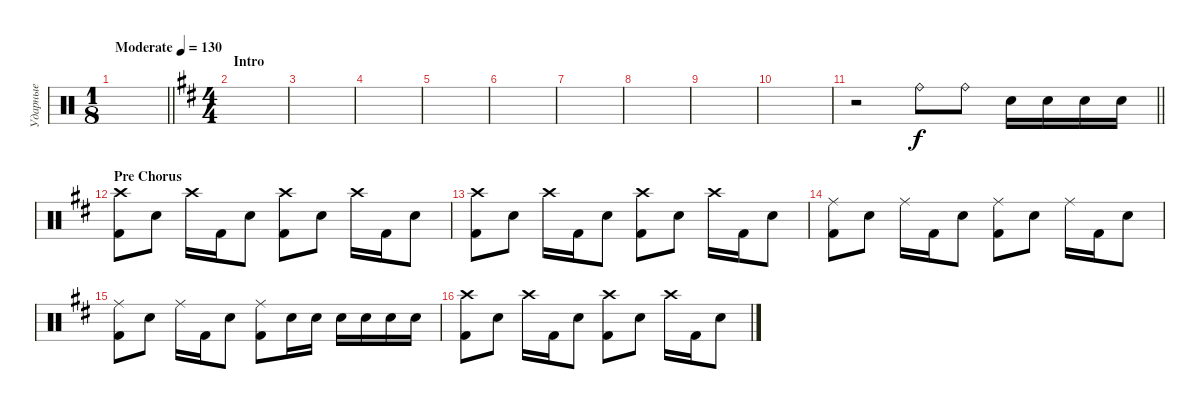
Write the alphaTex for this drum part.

\track ("Ударные" "Ударные") {instrument percussion}
\staff {score}
\articulation defaults
\ts (1 8)
\tempo (130 "Moderate")
\clef neutral
\barLineRight lightlight
\ks c
|
\ts (4 4)
\section ("" "Intro")
\ks d
|
|
|
|
|
|
|
|
|
\barLineRight lightlight
r.2 "Ride (bell)".8 "Ride (bell)".8 "Electric Snare (hit)".16 "Electric Snare (hit)".16 "Electric Snare (hit)".16 "Electric Snare (hit)".16 |
\section ("" "Pre Chorus")
("Crash high (hit)" "Kick (hit) 2").8 "Electric Snare (hit)".8 "Crash high (hit)".16 "Kick (hit) 2".16 "Electric Snare (hit)".8 ("Crash high (hit)" "Kick (hit) 2").8 "Electric Snare (hit)".8 "Crash high (hit)".16 "Kick (hit) 2".16 "Electric Snare (hit)".8 |
("Crash high (hit)" "Kick (hit) 2").8 "Electric Snare (hit)".8 "Crash high (hit)".16 "Kick (hit) 2".16 "Electric Snare (hit)".8 ("Crash high (hit)" "Kick (hit) 2").8 "Electric Snare (hit)".8 "Crash high (hit)".16 "Kick (hit) 2".16 "Electric Snare (hit)".8 |
("Ride (middle)" "Kick (hit) 2").8 "Electric Snare (hit)".8 "Ride (middle)".16 "Kick (hit) 2".16 "Electric Snare (hit)".8 ("Ride (middle)" "Kick (hit) 2").8 "Electric Snare (hit)".8 "Ride (middle)".16 "Kick (hit) 2".16 "Electric Snare (hit)".8 |
("Ride (middle)" "Kick (hit) 2").8 "Electric Snare (hit)".8 "Ride (middle)".16 "Kick (hit) 2".16 "Electric Snare (hit)".8 ("Ride (middle)" "Kick (hit) 2").8 "Electric Snare (hit)".16 "Electric Snare (hit)".16 "Electric Snare (hit)".16 "Electric Snare (hit)".16 "Electric Snare (hit)".16 "Electric Snare (hit)".16 |
("Crash high (hit)" "Kick (hit) 2").8 "Electric Snare (hit)".8 "Crash high (hit)".16 "Kick (hit) 2".16 "Electric Snare (hit)".8 ("Crash high (hit)" "Kick (hit) 2").8 "Electric Snare (hit)".8 "Crash high (hit)".16 "Kick (hit) 2".16 "Electric Snare (hit)".8
